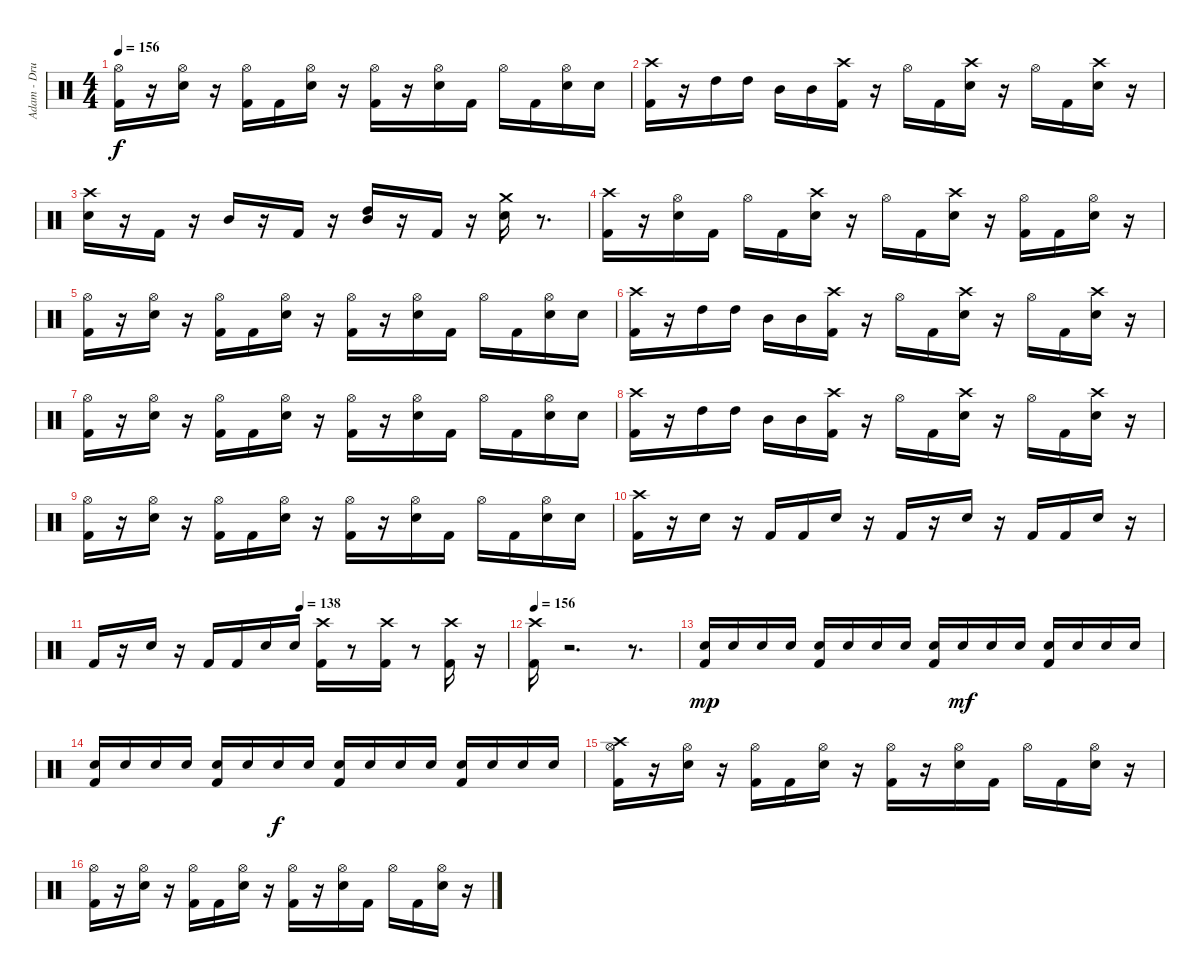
\track ("Adam - Drums" "Adam - Dru") {instrument percussion}
\staff {score}
\articulation defaults
\ts (4 4)
\tempo 156
\clef neutral
\ks c
("Kick (hit) 2" "Hi-Hat (open)").16{dy f} r.16 ("Hi-Hat (open)" "Snare (hit) 2").16 r.16 ("Hi-Hat (open)" "Kick (hit) 2").16 "Kick (hit) 2".16 ("Hi-Hat (open)" "Snare (hit) 2").16 r.16 ("Hi-Hat (open)" "Kick (hit) 2").16 r.16 ("Hi-Hat (open)" "Snare (hit) 2").16 "Kick (hit) 2".16 "Hi-Hat (open)".16 "Kick (hit) 2".16 ("Hi-Hat (open)" "Snare (hit) 2").16 "Snare (hit) 2".16 |
("Kick (hit) 2" "Crash high (hit)").16 r.16 "High Tom (hit)".16 "High Tom (hit)".16 "Mid Tom (hit)".16 "Mid Tom (hit)".16 ("Crash high (hit)" "Kick (hit) 2").16 r.16 "Hi-Hat (open)".16 "Kick (hit) 2".16 ("Crash high (hit)" "Snare (hit) 2").16 r.16 "Hi-Hat (open)".16 "Kick (hit) 2".16 ("Snare (hit) 2" "Crash high (hit)").16 r.16 |
("Crash high (hit)" "Snare (hit) 2").16 r.16 "Kick (hit) 2".16 r.16 "Mid Tom (hit)".16 r.16 "Kick (hit) 2".16 r.16 ("Mid Tom (hit)" "High Tom (hit)").16 r.16 "Kick (hit) 2".16 r.16 ("Snare (hit) 2" "Crash medium (hit)").16 r.8{d} |
("Crash high (hit)" "Kick (hit) 2").16 r.16 ("Snare (hit) 2" "Hi-Hat (open)").16 "Kick (hit) 2".16 "Hi-Hat (open)".16 "Kick (hit) 2".16 ("Crash high (hit)" "Snare (hit) 2").16 r.16 "Hi-Hat (open)".16 "Kick (hit) 2".16 ("Snare (hit) 2" "Crash high (hit)").16 r.16 ("Kick (hit) 2" "Hi-Hat (open)").16 "Kick (hit) 2".16 ("Snare (hit) 2" "Hi-Hat (open)").16 r.16 |
("Kick (hit) 2" "Hi-Hat (open)").16 r.16 ("Hi-Hat (open)" "Snare (hit) 2").16 r.16 ("Hi-Hat (open)" "Kick (hit) 2").16 "Kick (hit) 2".16 ("Hi-Hat (open)" "Snare (hit) 2").16 r.16 ("Hi-Hat (open)" "Kick (hit) 2").16 r.16 ("Hi-Hat (open)" "Snare (hit) 2").16 "Kick (hit) 2".16 "Hi-Hat (open)".16 "Kick (hit) 2".16 ("Hi-Hat (open)" "Snare (hit) 2").16 "Snare (hit) 2".16 |
("Kick (hit) 2" "Crash high (hit)").16 r.16 "High Tom (hit)".16 "High Tom (hit)".16 "Mid Tom (hit)".16 "Mid Tom (hit)".16 ("Crash high (hit)" "Kick (hit) 2").16 r.16 "Hi-Hat (open)".16 "Kick (hit) 2".16 ("Crash high (hit)" "Snare (hit) 2").16 r.16 "Hi-Hat (open)".16 "Kick (hit) 2".16 ("Snare (hit) 2" "Crash high (hit)").16 r.16 |
("Kick (hit) 2" "Hi-Hat (open)").16 r.16 ("Hi-Hat (open)" "Snare (hit) 2").16 r.16 ("Hi-Hat (open)" "Kick (hit) 2").16 "Kick (hit) 2".16 ("Hi-Hat (open)" "Snare (hit) 2").16 r.16 ("Hi-Hat (open)" "Kick (hit) 2").16 r.16 ("Hi-Hat (open)" "Snare (hit) 2").16 "Kick (hit) 2".16 "Hi-Hat (open)".16 "Kick (hit) 2".16 ("Hi-Hat (open)" "Snare (hit) 2").16 "Snare (hit) 2".16 |
("Kick (hit) 2" "Crash high (hit)").16 r.16 "High Tom (hit)".16 "High Tom (hit)".16 "Mid Tom (hit)".16 "Mid Tom (hit)".16 ("Crash high (hit)" "Kick (hit) 2").16 r.16 "Hi-Hat (open)".16 "Kick (hit) 2".16 ("Crash high (hit)" "Snare (hit) 2").16 r.16 "Hi-Hat (open)".16 "Kick (hit) 2".16 ("Snare (hit) 2" "Crash high (hit)").16 r.16 |
("Kick (hit) 2" "Hi-Hat (open)").16 r.16 ("Hi-Hat (open)" "Snare (hit) 2").16 r.16 ("Hi-Hat (open)" "Kick (hit) 2").16 "Kick (hit) 2".16 ("Hi-Hat (open)" "Snare (hit) 2").16 r.16 ("Hi-Hat (open)" "Kick (hit) 2").16 r.16 ("Hi-Hat (open)" "Snare (hit) 2").16 "Kick (hit) 2".16 "Hi-Hat (open)".16 "Kick (hit) 2".16 ("Hi-Hat (open)" "Snare (hit) 2").16 "Snare (hit) 2".16 |
("Crash high (hit)" "Kick (hit) 2").16 r.16 "Snare (hit) 2".16 r.16 "Kick (hit) 2".16 "Kick (hit) 2".16 "Snare (hit) 2".16 r.16 "Kick (hit) 2".16 r.16 "Snare (hit) 2".16 r.16 "Kick (hit) 2".16 "Kick (hit) 2".16 "Snare (hit) 2".16 r.16 |
\tempo (138 0.5)
"Kick (hit) 2".16 r.16 "Snare (hit) 2".16 r.16 "Kick (hit) 2".16 "Kick (hit) 2".16 "Snare (hit) 2".16 "Snare (hit) 2".16 ("Crash high (hit)" "Kick (hit) 2").16 r.8 ("Kick (hit) 2" "Crash high (hit)").16 r.8 ("Crash high (hit)" "Kick (hit) 2").16 r.16 |
\tempo 156
("Crash high (hit)" "Kick (hit) 2").16 r.2{d} r.8{d} |
("Kick (hit) 2" "Snare (hit) 2").16{dy mp} "Snare (hit) 2".16 "Snare (hit) 2".16 "Snare (hit) 2".16 ("Kick (hit) 2" "Snare (hit) 2").16 "Snare (hit) 2".16 "Snare (hit) 2".16 "Snare (hit) 2".16 ("Snare (hit) 2" "Kick (hit) 2").16 "Snare (hit) 2".16{dy mf} "Snare (hit) 2".16 "Snare (hit) 2".16 ("Kick (hit) 2" "Snare (hit) 2").16 "Snare (hit) 2".16 "Snare (hit) 2".16 "Snare (hit) 2".16 |
("Kick (hit) 2" "Snare (hit) 2").16 "Snare (hit) 2".16 "Snare (hit) 2".16 "Snare (hit) 2".16 ("Kick (hit) 2" "Snare (hit) 2").16 "Snare (hit) 2".16 "Snare (hit) 2".16{dy f} "Snare (hit) 2".16 ("Kick (hit) 2" "Snare (hit) 2").16 "Snare (hit) 2".16 "Snare (hit) 2".16 "Snare (hit) 2".16 ("Kick (hit) 2" "Snare (hit) 2").16 "Snare (hit) 2".16 "Snare (hit) 2".16 "Snare (hit) 2".16 |
("Hi-Hat (open)" "Crash high (hit)" "Kick (hit) 2").16 r.16 ("Hi-Hat (open)" "Snare (hit) 2").16 r.16 ("Hi-Hat (open)" "Kick (hit) 2").16 "Kick (hit) 2".16 ("Hi-Hat (open)" "Snare (hit) 2").16 r.16 ("Hi-Hat (open)" "Kick (hit) 2").16 r.16 ("Hi-Hat (open)" "Snare (hit) 2").16 "Kick (hit) 2".16 "Hi-Hat (open)".16 "Kick (hit) 2".16 ("Hi-Hat (open)" "Snare (hit) 2").16 r.16 |
("Hi-Hat (open)" "Kick (hit) 2").16 r.16 ("Hi-Hat (open)" "Snare (hit) 2").16 r.16 ("Hi-Hat (open)" "Kick (hit) 2").16 "Kick (hit) 2".16 ("Hi-Hat (open)" "Snare (hit) 2").16 r.16 ("Hi-Hat (open)" "Kick (hit) 2").16 r.16 ("Hi-Hat (open)" "Snare (hit) 2").16 "Kick (hit) 2".16 "Hi-Hat (open)".16 "Kick (hit) 2".16 ("Hi-Hat (open)" "Snare (hit) 2").16 r.16
